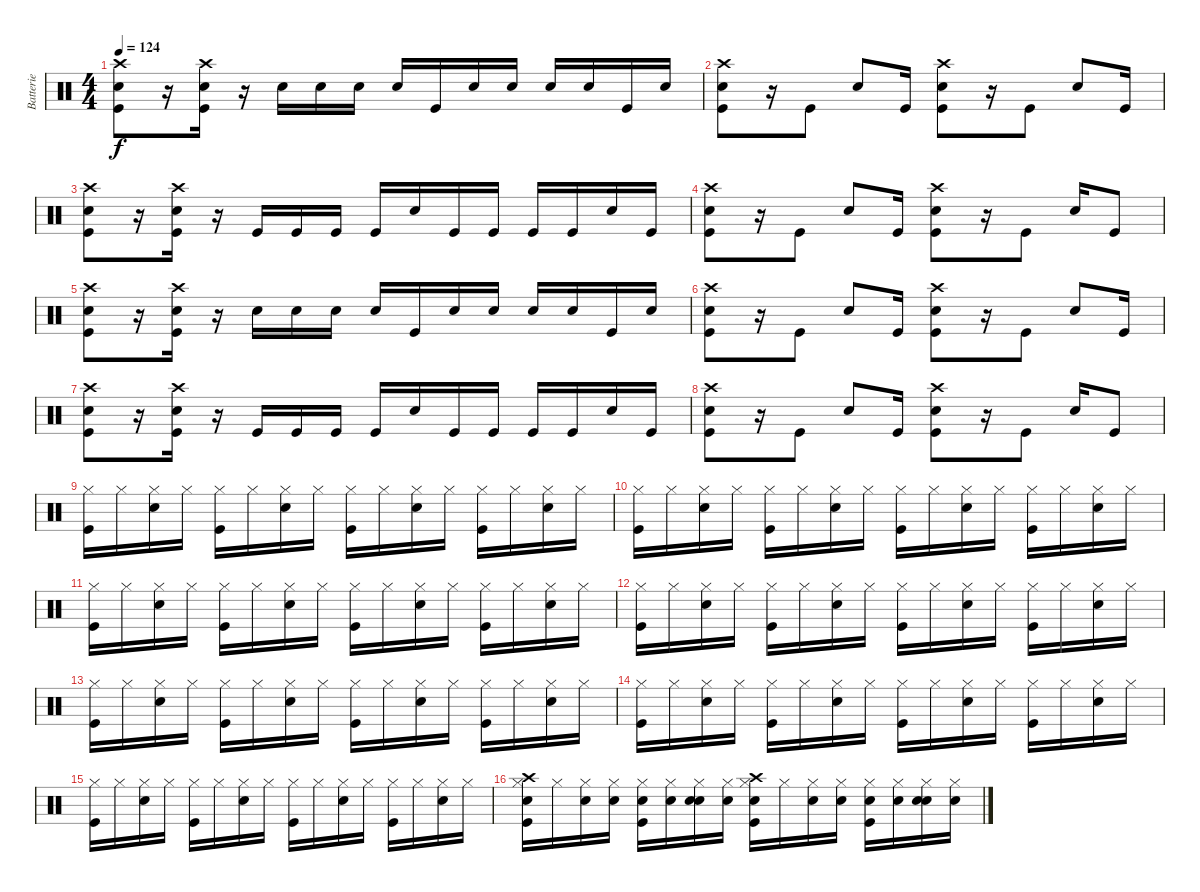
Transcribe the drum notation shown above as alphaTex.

\track ("Batterie" "Batterie") {instrument percussion}
\staff {score}
\articulation defaults
\ts (4 4)
\tempo 124
\clef neutral
\ks c
("Crash high (hit)" "Snare (hit) 2" "Kick (hit)").8{dy f} r.16 ("Crash high (hit)" "Snare (hit) 2" "Kick (hit)").16 r.16 "Electric Snare (hit)".16 "Electric Snare (hit)".16 "Electric Snare (hit)".16 "Electric Snare (hit)".16 "Kick (hit)".16 "Electric Snare (hit)".16 "Electric Snare (hit)".16 "Electric Snare (hit)".16 "Electric Snare (hit)".16 "Kick (hit)".16 "Electric Snare (hit)".16 |
("Crash high (hit)" "Snare (hit) 2" "Kick (hit)").8 r.16 "Kick (hit)".8 "Snare (hit) 2".8 "Kick (hit)".16 ("Crash high (hit)" "Snare (hit) 2" "Kick (hit)").8 r.16 "Kick (hit)".8 "Snare (hit) 2".8 "Kick (hit)".16 |
("Crash high (hit)" "Snare (hit) 2" "Kick (hit)").8 r.16 ("Crash high (hit)" "Snare (hit) 2" "Kick (hit)").16 r.16 "Kick (hit)".16 "Kick (hit)".16 "Kick (hit)".16 "Kick (hit)".16 "Electric Snare (hit)".16 "Kick (hit)".16 "Kick (hit)".16 "Kick (hit)".16 "Kick (hit)".16 "Electric Snare (hit)".16 "Kick (hit)".16 |
("Crash high (hit)" "Snare (hit) 2" "Kick (hit)").8 r.16 "Kick (hit)".8 "Snare (hit) 2".8 "Kick (hit)".16 ("Crash high (hit)" "Snare (hit) 2" "Kick (hit)").8 r.16 "Kick (hit)".8 "Snare (hit) 2".16 "Kick (hit)".8 |
("Crash high (hit)" "Snare (hit) 2" "Kick (hit)").8 r.16 ("Crash high (hit)" "Snare (hit) 2" "Kick (hit)").16 r.16 "Electric Snare (hit)".16 "Electric Snare (hit)".16 "Electric Snare (hit)".16 "Electric Snare (hit)".16 "Kick (hit)".16 "Electric Snare (hit)".16 "Electric Snare (hit)".16 "Electric Snare (hit)".16 "Electric Snare (hit)".16 "Kick (hit)".16 "Electric Snare (hit)".16 |
("Crash high (hit)" "Snare (hit) 2" "Kick (hit)").8 r.16 "Kick (hit)".8 "Snare (hit) 2".8 "Kick (hit)".16 ("Crash high (hit)" "Snare (hit) 2" "Kick (hit)").8 r.16 "Kick (hit)".8 "Snare (hit) 2".8 "Kick (hit)".16 |
("Crash high (hit)" "Snare (hit) 2" "Kick (hit)").8 r.16 ("Crash high (hit)" "Snare (hit) 2" "Kick (hit)").16 r.16 "Kick (hit)".16 "Kick (hit)".16 "Kick (hit)".16 "Kick (hit)".16 "Electric Snare (hit)".16 "Kick (hit)".16 "Kick (hit)".16 "Kick (hit)".16 "Kick (hit)".16 "Electric Snare (hit)".16 "Kick (hit)".16 |
("Crash high (hit)" "Snare (hit) 2" "Kick (hit)").8 r.16 "Kick (hit)".8 "Snare (hit) 2".8 "Kick (hit)".16 ("Crash high (hit)" "Snare (hit) 2" "Kick (hit)").8 r.16 "Kick (hit)".8 "Snare (hit) 2".16 "Kick (hit)".8 |
("Hi-Hat (closed)" "Kick (hit)").16 "Hi-Hat (closed)".16 ("Hi-Hat (closed)" "Snare (hit) 2").16 "Hi-Hat (closed)".16 ("Hi-Hat (closed)" "Kick (hit)").16 "Hi-Hat (closed)".16 ("Hi-Hat (closed)" "Snare (hit) 2").16 "Hi-Hat (closed)".16 ("Hi-Hat (closed)" "Kick (hit)").16 "Hi-Hat (closed)".16 ("Hi-Hat (closed)" "Snare (hit) 2").16 "Hi-Hat (closed)".16 ("Hi-Hat (closed)" "Kick (hit)").16 "Hi-Hat (closed)".16 ("Hi-Hat (closed)" "Snare (hit) 2").16 "Hi-Hat (closed)".16 |
("Hi-Hat (closed)" "Kick (hit)").16 "Hi-Hat (closed)".16 ("Hi-Hat (closed)" "Snare (hit) 2").16 "Hi-Hat (closed)".16 ("Hi-Hat (closed)" "Kick (hit)").16 "Hi-Hat (closed)".16 ("Hi-Hat (closed)" "Snare (hit) 2").16 "Hi-Hat (closed)".16 ("Hi-Hat (closed)" "Kick (hit)").16 "Hi-Hat (closed)".16 ("Hi-Hat (closed)" "Snare (hit) 2").16 "Hi-Hat (closed)".16 ("Hi-Hat (closed)" "Kick (hit)").16 "Hi-Hat (closed)".16 ("Hi-Hat (closed)" "Snare (hit) 2").16 "Hi-Hat (closed)".16 |
("Hi-Hat (closed)" "Kick (hit)").16 "Hi-Hat (closed)".16 ("Hi-Hat (closed)" "Snare (hit) 2").16 "Hi-Hat (closed)".16 ("Hi-Hat (closed)" "Kick (hit)").16 "Hi-Hat (closed)".16 ("Hi-Hat (closed)" "Snare (hit) 2").16 "Hi-Hat (closed)".16 ("Hi-Hat (closed)" "Kick (hit)").16 "Hi-Hat (closed)".16 ("Hi-Hat (closed)" "Snare (hit) 2").16 "Hi-Hat (closed)".16 ("Hi-Hat (closed)" "Kick (hit)").16 "Hi-Hat (closed)".16 ("Hi-Hat (closed)" "Snare (hit) 2").16 "Hi-Hat (closed)".16 |
("Hi-Hat (closed)" "Kick (hit)").16 "Hi-Hat (closed)".16 ("Hi-Hat (closed)" "Snare (hit) 2").16 "Hi-Hat (closed)".16 ("Hi-Hat (closed)" "Kick (hit)").16 "Hi-Hat (closed)".16 ("Hi-Hat (closed)" "Snare (hit) 2").16 "Hi-Hat (closed)".16 ("Hi-Hat (closed)" "Kick (hit)").16 "Hi-Hat (closed)".16 ("Hi-Hat (closed)" "Snare (hit) 2").16 "Hi-Hat (closed)".16 ("Hi-Hat (closed)" "Kick (hit)").16 "Hi-Hat (closed)".16 ("Hi-Hat (closed)" "Snare (hit) 2").16 "Hi-Hat (closed)".16 |
("Hi-Hat (closed)" "Kick (hit)").16 "Hi-Hat (closed)".16 ("Hi-Hat (closed)" "Snare (hit) 2").16 "Hi-Hat (closed)".16 ("Hi-Hat (closed)" "Kick (hit)").16 "Hi-Hat (closed)".16 ("Hi-Hat (closed)" "Snare (hit) 2").16 "Hi-Hat (closed)".16 ("Hi-Hat (closed)" "Kick (hit)").16 "Hi-Hat (closed)".16 ("Hi-Hat (closed)" "Snare (hit) 2").16 "Hi-Hat (closed)".16 ("Hi-Hat (closed)" "Kick (hit)").16 "Hi-Hat (closed)".16 ("Hi-Hat (closed)" "Snare (hit) 2").16 "Hi-Hat (closed)".16 |
("Hi-Hat (closed)" "Kick (hit)").16 "Hi-Hat (closed)".16 ("Hi-Hat (closed)" "Snare (hit) 2").16 "Hi-Hat (closed)".16 ("Hi-Hat (closed)" "Kick (hit)").16 "Hi-Hat (closed)".16 ("Hi-Hat (closed)" "Snare (hit) 2").16 "Hi-Hat (closed)".16 ("Hi-Hat (closed)" "Kick (hit)").16 "Hi-Hat (closed)".16 ("Hi-Hat (closed)" "Snare (hit) 2").16 "Hi-Hat (closed)".16 ("Hi-Hat (closed)" "Kick (hit)").16 "Hi-Hat (closed)".16 ("Hi-Hat (closed)" "Snare (hit) 2").16 "Hi-Hat (closed)".16 |
("Hi-Hat (closed)" "Kick (hit)").16 "Hi-Hat (closed)".16 ("Hi-Hat (closed)" "Snare (hit) 2").16 "Hi-Hat (closed)".16 ("Hi-Hat (closed)" "Kick (hit)").16 "Hi-Hat (closed)".16 ("Hi-Hat (closed)" "Snare (hit) 2").16 "Hi-Hat (closed)".16 ("Hi-Hat (closed)" "Kick (hit)").16 "Hi-Hat (closed)".16 ("Hi-Hat (closed)" "Snare (hit) 2").16 "Hi-Hat (closed)".16 ("Hi-Hat (closed)" "Kick (hit)").16 "Hi-Hat (closed)".16 ("Hi-Hat (closed)" "Snare (hit) 2").16 "Hi-Hat (closed)".16 |
("Hi-Hat (closed)" "Crash high (hit)" "Electric Snare (hit)" "Kick (hit)").16 "Hi-Hat (closed)".16 ("Hi-Hat (closed)" "Snare (hit) 2").16 ("Hi-Hat (closed)" "Electric Snare (hit)").16 ("Hi-Hat (closed)" "Electric Snare (hit)" "Kick (hit)").16 ("Hi-Hat (closed)" "Electric Snare (hit)").16 ("Hi-Hat (closed)" "Electric Snare (hit)" "Snare (hit) 2").16 ("Hi-Hat (closed)" "Electric Snare (hit)").16 ("Hi-Hat (closed)" "Crash high (hit)" "Electric Snare (hit)" "Kick (hit)").16 "Hi-Hat (closed)".16 ("Hi-Hat (closed)" "Snare (hit) 2").16 ("Hi-Hat (closed)" "Electric Snare (hit)").16 ("Hi-Hat (closed)" "Electric Snare (hit)" "Kick (hit)").16 ("Hi-Hat (closed)" "Electric Snare (hit)").16 ("Hi-Hat (closed)" "Electric Snare (hit)" "Snare (hit) 2").16 ("Hi-Hat (closed)" "Electric Snare (hit)").16
